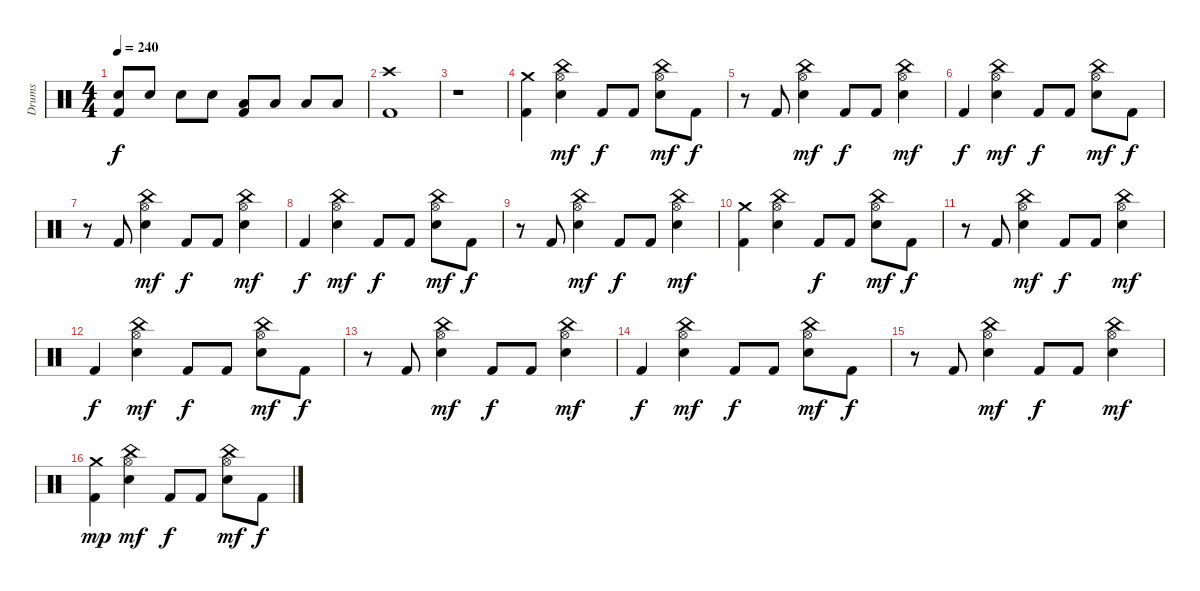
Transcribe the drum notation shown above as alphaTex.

\track ("Drums" "Drums") {instrument percussion}
\staff {score}
\articulation defaults
\ts (4 4)
\tempo 240
\clef neutral
\ks c
("Electric Snare (hit)" "Kick (hit) 2").8{dy f} "Electric Snare (hit)".8 "Electric Snare (hit)".8 "Electric Snare (hit)".8 ("Low Tom (hit)" "Kick (hit) 2").8 "Low Tom (hit)".8 "Low Tom (hit)".8 "Low Tom (hit)".8 |
("Crash high (hit)" "Kick (hit) 2").1 |
r.1 |
("Kick (hit) 2" "Crash medium (hit)").4 ("Electric Snare (hit)" "China (hit)" "Hi-Hat (open)").4{dy mf} "Kick (hit) 2".8{dy f} "Kick (hit) 2".8 ("Electric Snare (hit)" "China (hit)" "Hi-Hat (open)").8{dy mf} "Kick (hit) 2".8{dy f} |
r.8 "Kick (hit) 2".8 ("Electric Snare (hit)" "China (hit)" "Hi-Hat (open)").4{dy mf} "Kick (hit) 2".8{dy f} "Kick (hit) 2".8 ("Electric Snare (hit)" "China (hit)" "Hi-Hat (open)").4{dy mf} |
"Kick (hit) 2".4{dy f} ("Electric Snare (hit)" "China (hit)" "Hi-Hat (open)").4{dy mf} "Kick (hit) 2".8{dy f} "Kick (hit) 2".8 ("Electric Snare (hit)" "China (hit)" "Hi-Hat (open)").8{dy mf} "Kick (hit) 2".8{dy f} |
r.8 "Kick (hit) 2".8 ("Electric Snare (hit)" "China (hit)" "Hi-Hat (open)").4{dy mf} "Kick (hit) 2".8{dy f} "Kick (hit) 2".8 ("Electric Snare (hit)" "China (hit)" "Hi-Hat (open)").4{dy mf} |
"Kick (hit) 2".4{dy f} ("Electric Snare (hit)" "China (hit)" "Hi-Hat (open)").4{dy mf} "Kick (hit) 2".8{dy f} "Kick (hit) 2".8 ("Electric Snare (hit)" "China (hit)" "Hi-Hat (open)").8{dy mf} "Kick (hit) 2".8{dy f} |
r.8 "Kick (hit) 2".8 ("Electric Snare (hit)" "China (hit)" "Hi-Hat (open)").4{dy mf} "Kick (hit) 2".8{dy f} "Kick (hit) 2".8 ("Electric Snare (hit)" "China (hit)" "Hi-Hat (open)").4{dy mf} |
("Kick (hit) 2" "Crash medium (hit)").4 ("Electric Snare (hit)" "China (hit)" "Hi-Hat (open)").4 "Kick (hit) 2".8{dy f} "Kick (hit) 2".8 ("Electric Snare (hit)" "China (hit)" "Hi-Hat (open)").8{dy mf} "Kick (hit) 2".8{dy f} |
r.8 "Kick (hit) 2".8 ("Electric Snare (hit)" "China (hit)" "Hi-Hat (open)").4{dy mf} "Kick (hit) 2".8{dy f} "Kick (hit) 2".8 ("Electric Snare (hit)" "China (hit)" "Hi-Hat (open)").4{dy mf} |
"Kick (hit) 2".4{dy f} ("Electric Snare (hit)" "China (hit)" "Hi-Hat (open)").4{dy mf} "Kick (hit) 2".8{dy f} "Kick (hit) 2".8 ("Electric Snare (hit)" "China (hit)" "Hi-Hat (open)").8{dy mf} "Kick (hit) 2".8{dy f} |
r.8 "Kick (hit) 2".8 ("Electric Snare (hit)" "China (hit)" "Hi-Hat (open)").4{dy mf} "Kick (hit) 2".8{dy f} "Kick (hit) 2".8 ("Electric Snare (hit)" "China (hit)" "Hi-Hat (open)").4{dy mf} |
"Kick (hit) 2".4{dy f} ("Electric Snare (hit)" "China (hit)" "Hi-Hat (open)").4{dy mf} "Kick (hit) 2".8{dy f} "Kick (hit) 2".8 ("Electric Snare (hit)" "China (hit)" "Hi-Hat (open)").8{dy mf} "Kick (hit) 2".8{dy f} |
r.8 "Kick (hit) 2".8 ("Electric Snare (hit)" "China (hit)" "Hi-Hat (open)").4{dy mf} "Kick (hit) 2".8{dy f} "Kick (hit) 2".8 ("Electric Snare (hit)" "China (hit)" "Hi-Hat (open)").4{dy mf} |
("Kick (hit) 2" "Crash medium (hit)").4{dy mp} ("Electric Snare (hit)" "China (hit)" "Hi-Hat (open)").4{dy mf} "Kick (hit) 2".8{dy f} "Kick (hit) 2".8 ("Electric Snare (hit)" "China (hit)" "Hi-Hat (open)").8{dy mf} "Kick (hit) 2".8{dy f}
